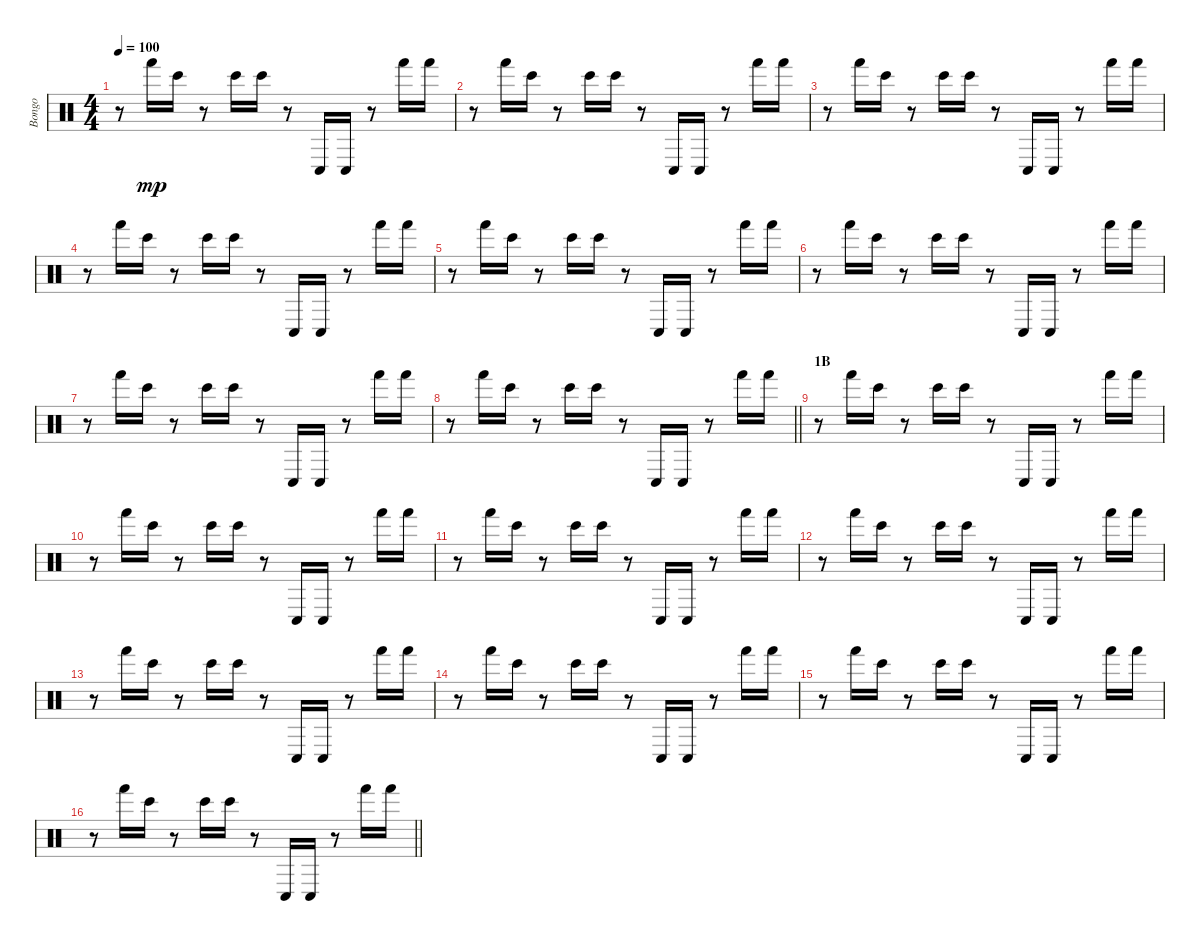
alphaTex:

\track ("Bongo" "Bongo") {instrument percussion}
\staff {score}
\articulation defaults
\ts (4 4)
\tempo 100
\clef neutral
\ks c
r.8{dy mp} "Hand (hit)".16 "Bongo High (hit)".16 r.8 "Bongo High (hit)".16 "Bongo High (hit)".16 r.8 "Conga low (hit)".16 "Conga low (hit)".16 r.8 "Hand (hit)".16 "Hand (hit)".16 |
r.8 "Hand (hit)".16 "Bongo High (hit)".16 r.8 "Bongo High (hit)".16 "Bongo High (hit)".16 r.8 "Conga low (hit)".16 "Conga low (hit)".16 r.8 "Hand (hit)".16 "Hand (hit)".16 |
r.8 "Hand (hit)".16 "Bongo High (hit)".16 r.8 "Bongo High (hit)".16 "Bongo High (hit)".16 r.8 "Conga low (hit)".16 "Conga low (hit)".16 r.8 "Hand (hit)".16 "Hand (hit)".16 |
r.8 "Hand (hit)".16 "Bongo High (hit)".16 r.8 "Bongo High (hit)".16 "Bongo High (hit)".16 r.8 "Conga low (hit)".16 "Conga low (hit)".16 r.8 "Hand (hit)".16 "Hand (hit)".16 |
r.8 "Hand (hit)".16 "Bongo High (hit)".16 r.8 "Bongo High (hit)".16 "Bongo High (hit)".16 r.8 "Conga low (hit)".16 "Conga low (hit)".16 r.8 "Hand (hit)".16 "Hand (hit)".16 |
r.8 "Hand (hit)".16 "Bongo High (hit)".16 r.8 "Bongo High (hit)".16 "Bongo High (hit)".16 r.8 "Conga low (hit)".16 "Conga low (hit)".16 r.8 "Hand (hit)".16 "Hand (hit)".16 |
r.8 "Hand (hit)".16 "Bongo High (hit)".16 r.8 "Bongo High (hit)".16 "Bongo High (hit)".16 r.8 "Conga low (hit)".16 "Conga low (hit)".16 r.8 "Hand (hit)".16 "Hand (hit)".16 |
\barLineRight lightlight
r.8 "Hand (hit)".16 "Bongo High (hit)".16 r.8 "Bongo High (hit)".16 "Bongo High (hit)".16 r.8 "Conga low (hit)".16 "Conga low (hit)".16 r.8 "Hand (hit)".16 "Hand (hit)".16 |
\section ("" "1B")
r.8 "Hand (hit)".16 "Bongo High (hit)".16 r.8 "Bongo High (hit)".16 "Bongo High (hit)".16 r.8 "Conga low (hit)".16 "Conga low (hit)".16 r.8 "Hand (hit)".16 "Hand (hit)".16 |
r.8 "Hand (hit)".16 "Bongo High (hit)".16 r.8 "Bongo High (hit)".16 "Bongo High (hit)".16 r.8 "Conga low (hit)".16 "Conga low (hit)".16 r.8 "Hand (hit)".16 "Hand (hit)".16 |
r.8 "Hand (hit)".16 "Bongo High (hit)".16 r.8 "Bongo High (hit)".16 "Bongo High (hit)".16 r.8 "Conga low (hit)".16 "Conga low (hit)".16 r.8 "Hand (hit)".16 "Hand (hit)".16 |
r.8 "Hand (hit)".16 "Bongo High (hit)".16 r.8 "Bongo High (hit)".16 "Bongo High (hit)".16 r.8 "Conga low (hit)".16 "Conga low (hit)".16 r.8 "Hand (hit)".16 "Hand (hit)".16 |
r.8 "Hand (hit)".16 "Bongo High (hit)".16 r.8 "Bongo High (hit)".16 "Bongo High (hit)".16 r.8 "Conga low (hit)".16 "Conga low (hit)".16 r.8 "Hand (hit)".16 "Hand (hit)".16 |
r.8 "Hand (hit)".16 "Bongo High (hit)".16 r.8 "Bongo High (hit)".16 "Bongo High (hit)".16 r.8 "Conga low (hit)".16 "Conga low (hit)".16 r.8 "Hand (hit)".16 "Hand (hit)".16 |
r.8 "Hand (hit)".16 "Bongo High (hit)".16 r.8 "Bongo High (hit)".16 "Bongo High (hit)".16 r.8 "Conga low (hit)".16 "Conga low (hit)".16 r.8 "Hand (hit)".16 "Hand (hit)".16 |
\barLineRight lightlight
r.8 "Hand (hit)".16 "Bongo High (hit)".16 r.8 "Bongo High (hit)".16 "Bongo High (hit)".16 r.8 "Conga low (hit)".16 "Conga low (hit)".16 r.8 "Hand (hit)".16 "Hand (hit)".16
